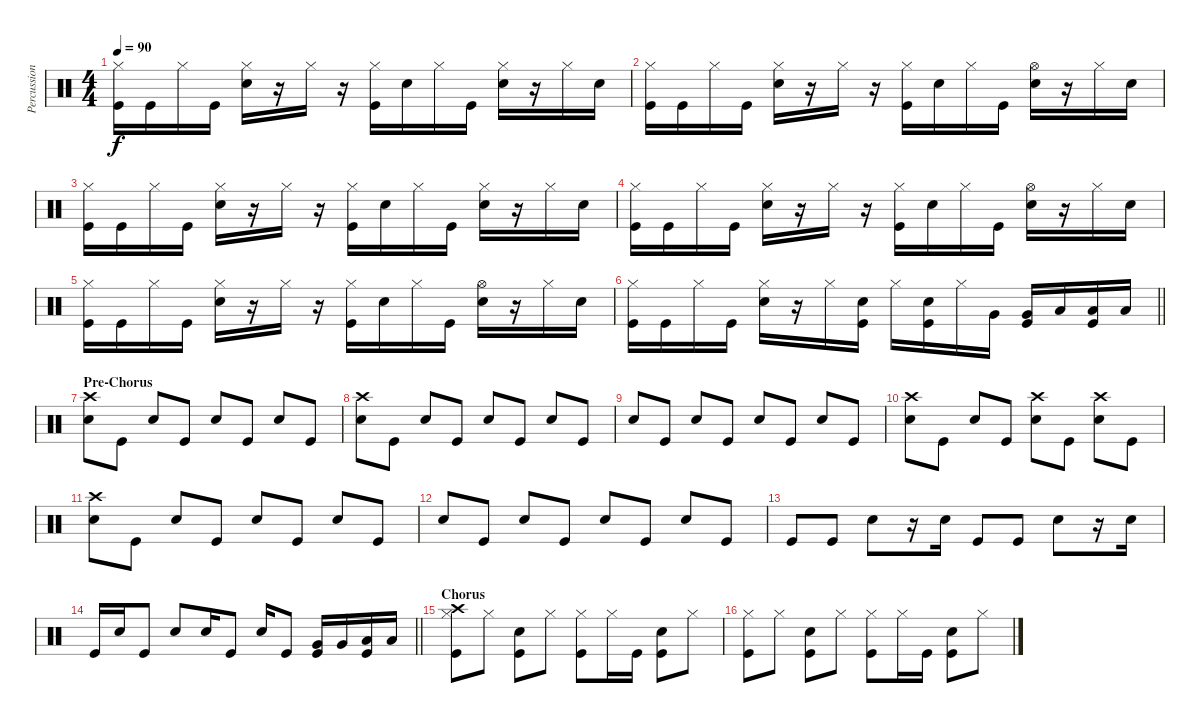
\track ("Percussion" "Percussion") {instrument percussion}
\staff {score}
\articulation defaults
\ts (4 4)
\tempo 90
\clef neutral
\ks c
("Hi-Hat (closed)" "Kick (hit)").16{dy f} "Kick (hit)".16 "Hi-Hat (closed)".16 "Kick (hit)".16 ("Hi-Hat (closed)" "Snare (hit) 2").16 r.16 "Hi-Hat (closed)".16 r.16 ("Hi-Hat (closed)" "Kick (hit)").16 "Snare (hit) 2".16 "Hi-Hat (closed)".16 "Kick (hit)".16 ("Hi-Hat (closed)" "Snare (hit) 2").16 r.16 "Hi-Hat (closed)".16 "Snare (hit) 2".16 |
("Hi-Hat (closed)" "Kick (hit)").16 "Kick (hit)".16 "Hi-Hat (closed)".16 "Kick (hit)".16 ("Hi-Hat (closed)" "Snare (hit) 2").16 r.16 "Hi-Hat (closed)".16 r.16 ("Hi-Hat (closed)" "Kick (hit)").16 "Snare (hit) 2".16 "Hi-Hat (closed)".16 "Kick (hit)".16 ("Hi-Hat (open)" "Snare (hit) 2").16 r.16 "Hi-Hat (closed)".16 "Snare (hit) 2".16 |
("Hi-Hat (closed)" "Kick (hit)").16 "Kick (hit)".16 "Hi-Hat (closed)".16 "Kick (hit)".16 ("Hi-Hat (closed)" "Snare (hit) 2").16 r.16 "Hi-Hat (closed)".16 r.16 ("Hi-Hat (closed)" "Kick (hit)").16 "Snare (hit) 2".16 "Hi-Hat (closed)".16 "Kick (hit)".16 ("Hi-Hat (closed)" "Snare (hit) 2").16 r.16 "Hi-Hat (closed)".16 "Snare (hit) 2".16 |
("Hi-Hat (closed)" "Kick (hit)").16 "Kick (hit)".16 "Hi-Hat (closed)".16 "Kick (hit)".16 ("Hi-Hat (closed)" "Snare (hit) 2").16 r.16 "Hi-Hat (closed)".16 r.16 ("Hi-Hat (closed)" "Kick (hit)").16 "Snare (hit) 2".16 "Hi-Hat (closed)".16 "Kick (hit)".16 ("Hi-Hat (open)" "Snare (hit) 2").16 r.16 "Hi-Hat (closed)".16 "Snare (hit) 2".16 |
("Hi-Hat (closed)" "Kick (hit)").16 "Kick (hit)".16 "Hi-Hat (closed)".16 "Kick (hit)".16 ("Hi-Hat (closed)" "Snare (hit) 2").16 r.16 "Hi-Hat (closed)".16 r.16 ("Hi-Hat (closed)" "Kick (hit)").16 "Snare (hit) 2".16 "Hi-Hat (closed)".16 "Kick (hit)".16 ("Hi-Hat (open)" "Snare (hit) 2").16 r.16 "Hi-Hat (closed)".16 "Snare (hit) 2".16 |
\barLineRight lightlight
("Hi-Hat (closed)" "Kick (hit)").16 "Kick (hit)".16 "Hi-Hat (closed)".16 "Kick (hit)".16 ("Hi-Hat (closed)" "Snare (hit) 2").16 r.16 "Hi-Hat (closed)".16 ("Snare (hit) 2" "Kick (hit)").16 "Hi-Hat (closed)".16 ("Snare (hit) 2" "Kick (hit)").16 "Hi-Hat (closed)".16 "Very Low Tom (hit)".16 ("Very Low Tom (hit)" "Kick (hit)").16 "Low Floor Tom (hit)".16 ("Low Floor Tom (hit)" "Kick (hit)").16 "Low Floor Tom (hit)".16 |
\section ("" "Pre-Chorus")
("Crash high (hit)" "Snare (hit) 2").8 "Kick (hit)".8 "Snare (hit) 2".8 "Kick (hit)".8 "Snare (hit) 2".8 "Kick (hit)".8 "Snare (hit) 2".8 "Kick (hit)".8 |
("Crash high (hit)" "Snare (hit) 2").8 "Kick (hit)".8 "Snare (hit) 2".8 "Kick (hit)".8 "Snare (hit) 2".8 "Kick (hit)".8 "Snare (hit) 2".8 "Kick (hit)".8 |
"Snare (hit) 2".8 "Kick (hit)".8 "Snare (hit) 2".8 "Kick (hit)".8 "Snare (hit) 2".8 "Kick (hit)".8 "Snare (hit) 2".8 "Kick (hit)".8 |
("Crash high (hit)" "Snare (hit) 2").8 "Kick (hit)".8 "Snare (hit) 2".8 "Kick (hit)".8 ("Crash high (hit)" "Snare (hit) 2").8 "Kick (hit)".8 ("Crash high (hit)" "Snare (hit) 2").8 "Kick (hit)".8 |
("Crash high (hit)" "Snare (hit) 2").8 "Kick (hit)".8 "Snare (hit) 2".8 "Kick (hit)".8 "Snare (hit) 2".8 "Kick (hit)".8 "Snare (hit) 2".8 "Kick (hit)".8 |
"Snare (hit) 2".8 "Kick (hit)".8 "Snare (hit) 2".8 "Kick (hit)".8 "Snare (hit) 2".8 "Kick (hit)".8 "Snare (hit) 2".8 "Kick (hit)".8 |
"Kick (hit)".8 "Kick (hit)".8 "Snare (hit) 2".8 r.16 "Snare (hit) 2".16 "Kick (hit)".8 "Kick (hit)".8 "Snare (hit) 2".8 r.16 "Snare (hit) 2".16 |
\barLineRight lightlight "Kick (hit)".16 "Snare (hit) 2".16 "Kick (hit)".8 "Snare (hit) 2".8 "Snare (hit) 2".16 "Kick (hit)".8 "Snare (hit) 2".16 "Kick (hit)".8
("Very Low Tom (hit)" "Kick (hit)").16 "Very Low Tom (hit)".16 ("Low Floor Tom (hit)" "Kick (hit)").16 "Low Floor Tom (hit)".16 |
\section ("" "Chorus")
("Crash high (hit)" "Hi-Hat (closed)" "Kick (hit)").8 "Hi-Hat (closed)".8 ("Snare (hit) 2" "Kick (hit)").8 "Hi-Hat (closed)".8 ("Hi-Hat (closed)" "Kick (hit)").8 "Hi-Hat (closed)".16 "Kick (hit)".16 ("Snare (hit) 2" "Kick (hit)").8 "Hi-Hat (closed)".8 |
("Hi-Hat (closed)" "Kick (hit)").8 "Hi-Hat (closed)".8 ("Snare (hit) 2" "Kick (hit)").8 "Hi-Hat (closed)".8 ("Hi-Hat (closed)" "Kick (hit)").8 "Hi-Hat (closed)".16 "Kick (hit)".16 ("Snare (hit) 2" "Kick (hit)").8 "Hi-Hat (closed)".8
